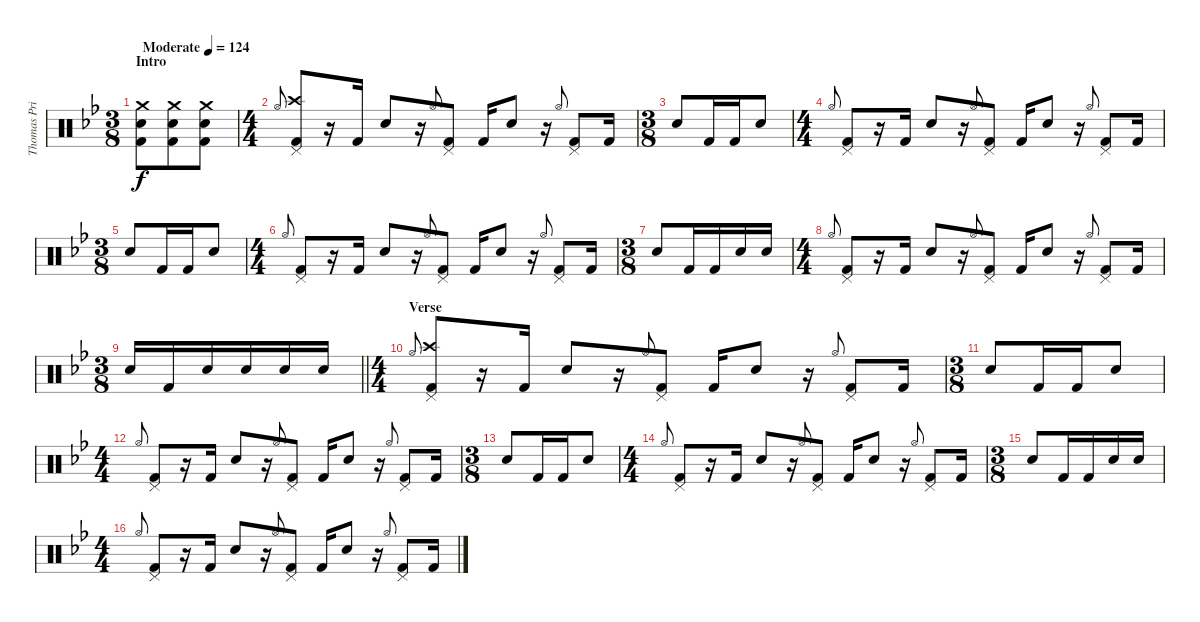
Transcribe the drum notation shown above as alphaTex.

\track ("Thomas Pridgen" "Thomas Pri") {instrument percussion}
\staff {score}
\articulation defaults
\ts (3 8)
\section ("" "Intro")
\tempo (124 "Moderate")
\clef neutral
\ks gminor
("Crash medium (hit)" "Electric Snare (hit)" "Kick (hit) 2").8{dy f} ("Crash medium (hit)" "Electric Snare (hit)" "Kick (hit) 2").8 ("Crash medium (hit)" "Electric Snare (hit)" "Kick (hit) 2").8 |
\ts (4 4)
"Hi-Hat (open)".8{gr onbeat} ("Crash high (hit)" "Pedal Hi-Hat (hit)" "Kick (hit) 2").8 r.16 "Kick (hit) 2".16 "Electric Snare (hit)".8 r.16 "Hi-Hat (open)".8{gr onbeat} ("Pedal Hi-Hat (hit)" "Kick (hit) 2").8 "Kick (hit) 2".16 "Electric Snare (hit)".8 r.16 "Hi-Hat (open)".8{gr onbeat} ("Pedal Hi-Hat (hit)" "Kick (hit) 2").8 "Kick (hit) 2".16 |
\ts (3 8)
"Electric Snare (hit)".8 "Kick (hit) 2".16 "Kick (hit) 2".16 "Electric Snare (hit)".8 |
\ts (4 4)
"Hi-Hat (open)".8{gr onbeat} ("Pedal Hi-Hat (hit)" "Kick (hit) 2").8 r.16 "Kick (hit) 2".16 "Electric Snare (hit)".8 r.16 "Hi-Hat (open)".8{gr onbeat} ("Pedal Hi-Hat (hit)" "Kick (hit) 2").8 "Kick (hit) 2".16 "Electric Snare (hit)".8 r.16 "Hi-Hat (open)".8{gr onbeat} ("Pedal Hi-Hat (hit)" "Kick (hit) 2").8 "Kick (hit) 2".16 |
\ts (3 8)
"Electric Snare (hit)".8 "Kick (hit) 2".16 "Kick (hit) 2".16 "Electric Snare (hit)".8 |
\ts (4 4)
"Hi-Hat (open)".8{gr onbeat} ("Pedal Hi-Hat (hit)" "Kick (hit) 2").8 r.16 "Kick (hit) 2".16 "Electric Snare (hit)".8 r.16 "Hi-Hat (open)".8{gr onbeat} ("Pedal Hi-Hat (hit)" "Kick (hit) 2").8 "Kick (hit) 2".16 "Electric Snare (hit)".8 r.16 "Hi-Hat (open)".8{gr onbeat} ("Pedal Hi-Hat (hit)" "Kick (hit) 2").8 "Kick (hit) 2".16 |
\ts (3 8)
"Electric Snare (hit)".8 "Kick (hit) 2".16 "Kick (hit) 2".16 "Electric Snare (hit)".16 "Electric Snare (hit)".16 |
\ts (4 4)
"Hi-Hat (open)".8{gr onbeat} ("Pedal Hi-Hat (hit)" "Kick (hit) 2").8 r.16 "Kick (hit) 2".16 "Electric Snare (hit)".8 r.16 "Hi-Hat (open)".8{gr onbeat} ("Pedal Hi-Hat (hit)" "Kick (hit) 2").8 "Kick (hit) 2".16 "Electric Snare (hit)".8 r.16 "Hi-Hat (open)".8{gr onbeat} ("Pedal Hi-Hat (hit)" "Kick (hit) 2").8 "Kick (hit) 2".16 |
\ts (3 8)
\barLineRight lightlight "Electric Snare (hit)".16 "Kick (hit) 2".16 "Electric Snare (hit)".16 "Electric Snare (hit)".16 "Electric Snare (hit)".16 "Electric Snare (hit)".16
|
\ts (4 4)
\section ("" "Verse")
"Hi-Hat (open)".8{gr onbeat} ("Crash high (hit)" "Pedal Hi-Hat (hit)" "Kick (hit) 2").8 r.16 "Kick (hit) 2".16 "Electric Snare (hit)".8 r.16 "Hi-Hat (open)".8{gr onbeat} ("Pedal Hi-Hat (hit)" "Kick (hit) 2").8 "Kick (hit) 2".16 "Electric Snare (hit)".8 r.16 "Hi-Hat (open)".8{gr onbeat} ("Pedal Hi-Hat (hit)" "Kick (hit) 2").8 "Kick (hit) 2".16 |
\ts (3 8)
"Electric Snare (hit)".8 "Kick (hit) 2".16 "Kick (hit) 2".16 "Electric Snare (hit)".8 |
\ts (4 4)
"Hi-Hat (open)".8{gr onbeat} ("Pedal Hi-Hat (hit)" "Kick (hit) 2").8 r.16 "Kick (hit) 2".16 "Electric Snare (hit)".8 r.16 "Hi-Hat (open)".8{gr onbeat} ("Pedal Hi-Hat (hit)" "Kick (hit) 2").8 "Kick (hit) 2".16 "Electric Snare (hit)".8 r.16 "Hi-Hat (open)".8{gr onbeat} ("Pedal Hi-Hat (hit)" "Kick (hit) 2").8 "Kick (hit) 2".16 |
\ts (3 8)
"Electric Snare (hit)".8 "Kick (hit) 2".16 "Kick (hit) 2".16 "Electric Snare (hit)".8 |
\ts (4 4)
"Hi-Hat (open)".8{gr onbeat} ("Pedal Hi-Hat (hit)" "Kick (hit) 2").8 r.16 "Kick (hit) 2".16 "Electric Snare (hit)".8 r.16 "Hi-Hat (open)".8{gr onbeat} ("Pedal Hi-Hat (hit)" "Kick (hit) 2").8 "Kick (hit) 2".16 "Electric Snare (hit)".8 r.16 "Hi-Hat (open)".8{gr onbeat} ("Pedal Hi-Hat (hit)" "Kick (hit) 2").8 "Kick (hit) 2".16 |
\ts (3 8)
"Electric Snare (hit)".8 "Kick (hit) 2".16 "Kick (hit) 2".16 "Electric Snare (hit)".16 "Electric Snare (hit)".16 |
\ts (4 4)
"Hi-Hat (open)".8{gr onbeat} ("Pedal Hi-Hat (hit)" "Kick (hit) 2").8 r.16 "Kick (hit) 2".16 "Electric Snare (hit)".8 r.16 "Hi-Hat (open)".8{gr onbeat} ("Pedal Hi-Hat (hit)" "Kick (hit) 2").8 "Kick (hit) 2".16 "Electric Snare (hit)".8 r.16 "Hi-Hat (open)".8{gr onbeat} ("Pedal Hi-Hat (hit)" "Kick (hit) 2").8 "Kick (hit) 2".16
